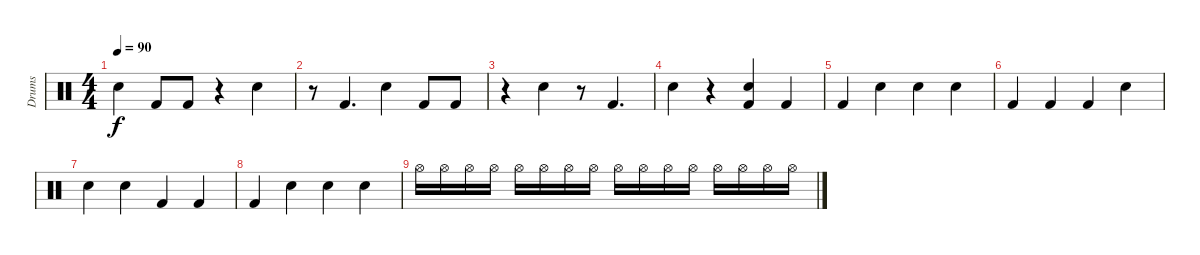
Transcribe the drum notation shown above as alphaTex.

\track ("Drums" "Drums") {instrument percussion}
\staff {score}
\articulation defaults
\ts (4 4)
\tempo 90
\clef neutral
\ks c "Snare (hit) 2".4{dy f} "Kick (hit) 2".8 "Kick (hit) 2".8
r.4 "Snare (hit) 2".4 |
r.8 "Kick (hit) 2".4{d} "Snare (hit) 2".4 "Kick (hit) 2".8 "Kick (hit) 2".8 |
r.4 "Snare (hit) 2".4 r.8 "Kick (hit) 2".4{d} |
"Snare (hit) 2".4 r.4 ("Kick (hit) 2" "Snare (hit) 2").4 "Kick (hit) 2".4 |
"Kick (hit) 2".4 "Snare (hit) 2".4 "Snare (hit) 2".4 "Snare (hit) 2".4 |
"Kick (hit) 2".4 "Kick (hit) 2".4 "Kick (hit) 2".4 "Snare (hit) 2".4 |
"Snare (hit) 2".4 "Snare (hit) 2".4 "Kick (hit) 2".4 "Kick (hit) 2".4 |
"Kick (hit) 2".4 "Snare (hit) 2".4 "Snare (hit) 2".4 "Snare (hit) 2".4 |
"Hi-Hat (open)".16 "Hi-Hat (open)".16 "Hi-Hat (open)".16 "Hi-Hat (open)".16 "Hi-Hat (open)".16 "Hi-Hat (open)".16 "Hi-Hat (open)".16 "Hi-Hat (open)".16 "Hi-Hat (open)".16 "Hi-Hat (open)".16 "Hi-Hat (open)".16 "Hi-Hat (open)".16 "Hi-Hat (open)".16 "Hi-Hat (open)".16 "Hi-Hat (open)".16 "Hi-Hat (open)".16
